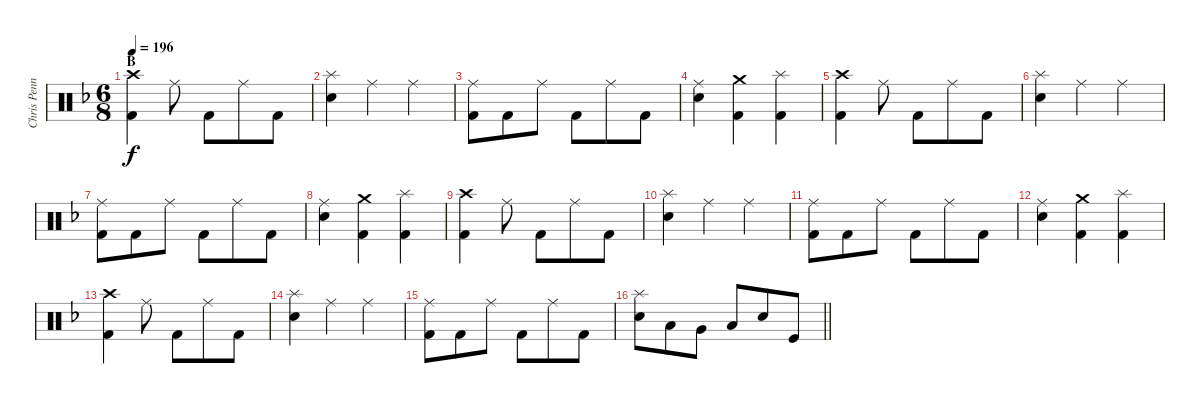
\track ("Chris Pennie/Taylor Hawkins - Drum" "Chris Penn") {instrument percussion}
\staff {score}
\articulation defaults
\ts (6 8)
\section ("" "B")
\tempo 196
\clef neutral
\ks f
("Crash high (hit)" "Kick (hit) 2").4{dy f} "Ride (middle)".8 "Kick (hit) 2".8 "Ride (middle)".8 "Kick (hit) 2".8 |
("Splash (hit)" "Electric Snare (hit)").4 "Ride (middle)".4 "Ride (middle)".4 |
("Ride (middle)" "Kick (hit) 2").8 "Kick (hit) 2".8 "Ride (middle)".8 "Kick (hit) 2".8 "Ride (middle)".8 "Kick (hit) 2".8 |
("Ride (middle)" "Electric Snare (hit)").4 ("Crash medium (hit)" "Kick (hit) 2").4 ("Splash (hit)" "Kick (hit) 2").4 |
("Crash high (hit)" "Kick (hit) 2").4 "Ride (middle)".8 "Kick (hit) 2".8 "Ride (middle)".8 "Kick (hit) 2".8 |
("Splash (hit)" "Electric Snare (hit)").4 "Ride (middle)".4 "Ride (middle)".4 |
("Ride (middle)" "Kick (hit) 2").8 "Kick (hit) 2".8 "Ride (middle)".8 "Kick (hit) 2".8 "Ride (middle)".8 "Kick (hit) 2".8 |
("Ride (middle)" "Electric Snare (hit)").4 ("Crash medium (hit)" "Kick (hit) 2").4 ("Splash (hit)" "Kick (hit) 2").4 |
("Crash high (hit)" "Kick (hit) 2").4 "Ride (middle)".8 "Kick (hit) 2".8 "Ride (middle)".8 "Kick (hit) 2".8 |
("Splash (hit)" "Electric Snare (hit)").4 "Ride (middle)".4 "Ride (middle)".4 |
("Ride (middle)" "Kick (hit) 2").8 "Kick (hit) 2".8 "Ride (middle)".8 "Kick (hit) 2".8 "Ride (middle)".8 "Kick (hit) 2".8 |
("Ride (middle)" "Electric Snare (hit)").4 ("Crash medium (hit)" "Kick (hit) 2").4 ("Splash (hit)" "Kick (hit) 2").4 |
("Crash high (hit)" "Kick (hit) 2").4 "Ride (middle)".8 "Kick (hit) 2".8 "Ride (middle)".8 "Kick (hit) 2".8 |
("Splash (hit)" "Electric Snare (hit)").4 "Ride (middle)".4 "Ride (middle)".4 |
("Ride (middle)" "Kick (hit) 2").8 "Kick (hit) 2".8 "Ride (middle)".8 "Kick (hit) 2".8 "Ride (middle)".8 "Kick (hit) 2".8 |
\barLineRight lightlight
("Splash (hit)" "Electric Snare (hit)").8 "Low Tom (hit)".8 "Very Low Tom (hit)".8 "Low Floor Tom (hit)".8 "Electric Snare (hit)".8 "Kick (hit)".8
